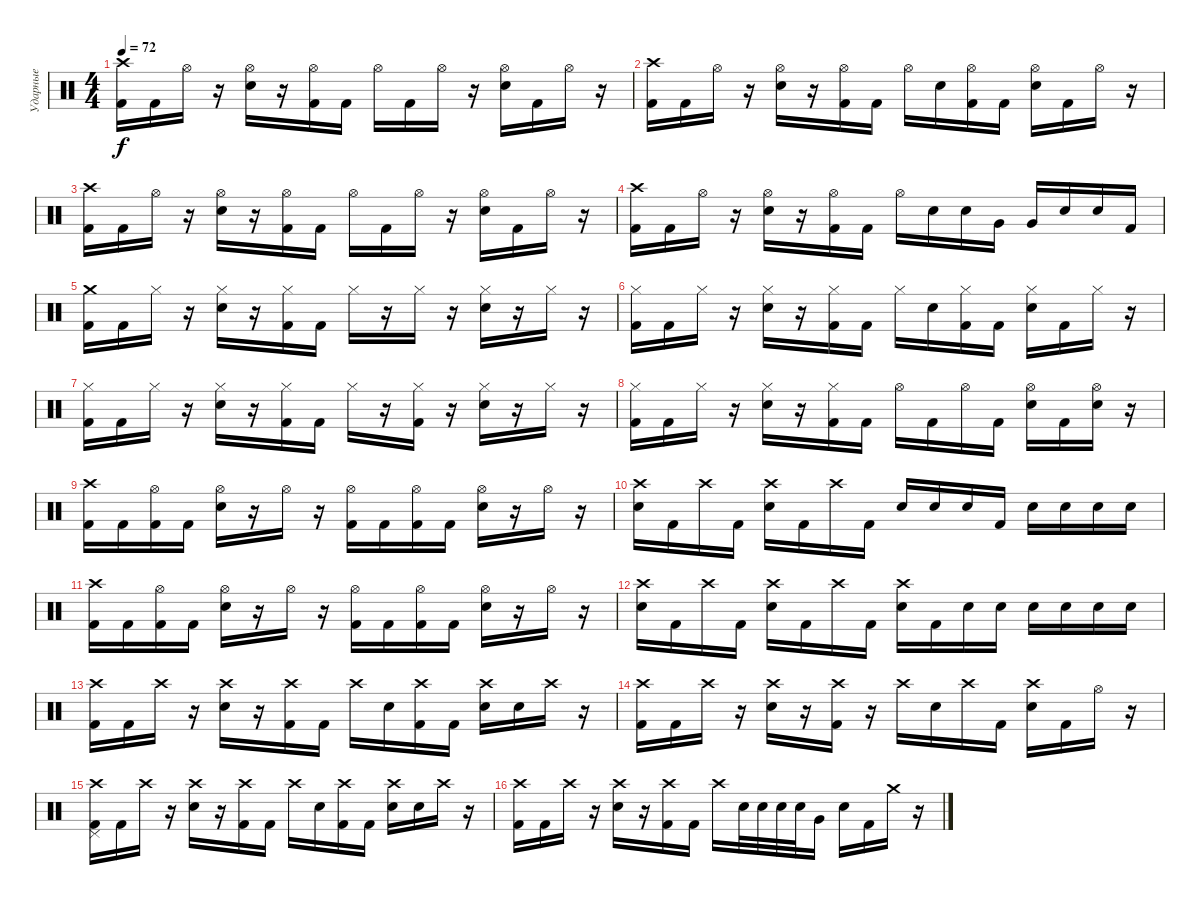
\track ("Ударные" "Ударные") {instrument percussion}
\staff {score}
\articulation defaults
\ts (4 4)
\tempo 72
\clef neutral
\ks c
("Crash high (hit)" "Kick (hit) 2").16{dy f} "Kick (hit) 2".16 "Hi-Hat (open)".16 r.16 ("Hi-Hat (open)" "Electric Snare (hit)").16 r.16 ("Hi-Hat (open)" "Kick (hit) 2").16 "Kick (hit) 2".16 "Hi-Hat (open)".16 "Kick (hit) 2".16 "Hi-Hat (open)".16 r.16 ("Hi-Hat (open)" "Electric Snare (hit)").16 "Kick (hit) 2".16 "Hi-Hat (open)".16 r.16 |
("Crash high (hit)" "Kick (hit) 2").16 "Kick (hit) 2".16 "Hi-Hat (open)".16 r.16 ("Hi-Hat (open)" "Electric Snare (hit)").16 r.16 ("Hi-Hat (open)" "Kick (hit) 2").16 "Kick (hit) 2".16 "Hi-Hat (open)".16 "Electric Snare (hit)".16 ("Hi-Hat (open)" "Kick (hit) 2").16 "Kick (hit) 2".16 ("Hi-Hat (open)" "Electric Snare (hit)").16 "Kick (hit) 2".16 "Hi-Hat (open)".16 r.16 |
("Crash high (hit)" "Kick (hit) 2").16 "Kick (hit) 2".16 "Hi-Hat (open)".16 r.16 ("Hi-Hat (open)" "Electric Snare (hit)").16 r.16 ("Hi-Hat (open)" "Kick (hit) 2").16 "Kick (hit) 2".16 "Hi-Hat (open)".16 "Kick (hit) 2".16 "Hi-Hat (open)".16 r.16 ("Hi-Hat (open)" "Electric Snare (hit)").16 "Kick (hit) 2".16 "Hi-Hat (open)".16 r.16 |
("Crash high (hit)" "Kick (hit) 2").16 "Kick (hit) 2".16 "Hi-Hat (open)".16 r.16 ("Hi-Hat (open)" "Electric Snare (hit)").16 r.16 ("Hi-Hat (open)" "Kick (hit) 2").16 "Kick (hit) 2".16 "Hi-Hat (open)".16 "Electric Snare (hit)".16 "Electric Snare (hit)".16 "Very Low Tom (hit)".16 "Very Low Tom (hit)".16 "Electric Snare (hit)".16 "Electric Snare (hit)".16 "Kick (hit) 2".16 |
("Crash medium (hit)" "Kick (hit) 2").16 "Kick (hit) 2".16 "Hi-Hat (closed)".16 r.16 ("Hi-Hat (closed)" "Electric Snare (hit)").16 r.16 ("Hi-Hat (closed)" "Kick (hit) 2").16 "Kick (hit) 2".16 "Hi-Hat (closed)".16 r.16 "Hi-Hat (closed)".16 r.16 ("Hi-Hat (closed)" "Electric Snare (hit)").16 r.16 "Hi-Hat (closed)".16 r.16 |
("Hi-Hat (closed)" "Kick (hit) 2").16 "Kick (hit) 2".16 "Hi-Hat (closed)".16 r.16 ("Hi-Hat (closed)" "Electric Snare (hit)").16 r.16 ("Hi-Hat (closed)" "Kick (hit) 2").16 "Kick (hit) 2".16 "Hi-Hat (closed)".16 "Electric Snare (hit)".16 ("Hi-Hat (closed)" "Kick (hit) 2").16 "Kick (hit) 2".16 ("Hi-Hat (closed)" "Electric Snare (hit)").16 "Kick (hit) 2".16 "Hi-Hat (closed)".16 r.16 |
("Hi-Hat (closed)" "Kick (hit) 2").16 "Kick (hit) 2".16 "Hi-Hat (closed)".16 r.16 ("Hi-Hat (closed)" "Electric Snare (hit)").16 r.16 ("Hi-Hat (closed)" "Kick (hit) 2").16 "Kick (hit) 2".16 "Hi-Hat (closed)".16 r.16 ("Hi-Hat (closed)" "Kick (hit) 2").16 r.16 ("Hi-Hat (closed)" "Electric Snare (hit)").16 r.16 "Hi-Hat (closed)".16 r.16 |
("Hi-Hat (closed)" "Kick (hit) 2").16 "Kick (hit) 2".16 "Hi-Hat (closed)".16 r.16 ("Hi-Hat (closed)" "Electric Snare (hit)").16 r.16 ("Hi-Hat (closed)" "Kick (hit) 2").16 "Kick (hit) 2".16 "Hi-Hat (open)".16 "Kick (hit) 2".16 "Hi-Hat (open)".16 "Kick (hit) 2".16 ("Hi-Hat (open)" "Electric Snare (hit)").16 "Kick (hit) 2".16 ("Hi-Hat (open)" "Electric Snare (hit)").16 r.16 |
("Crash high (hit)" "Kick (hit) 2").16 "Kick (hit) 2".16 ("Hi-Hat (open)" "Kick (hit) 2").16 "Kick (hit) 2".16 ("Hi-Hat (open)" "Electric Snare (hit)").16 r.16 "Hi-Hat (open)".16 r.16 ("Hi-Hat (open)" "Kick (hit) 2").16 "Kick (hit) 2".16 ("Hi-Hat (open)" "Kick (hit) 2").16 "Kick (hit) 2".16 ("Hi-Hat (open)" "Electric Snare (hit)").16 r.16 "Hi-Hat (open)".16 r.16 |
("Crash high (hit)" "Electric Snare (hit)").16 "Kick (hit) 2".16 "Crash high (hit)".16 "Kick (hit) 2".16 ("Crash high (hit)" "Electric Snare (hit)").16 "Kick (hit) 2".16 "Crash high (hit)".16 "Kick (hit) 2".16 "Electric Snare (hit)".16 "Electric Snare (hit)".16 "Electric Snare (hit)".16 "Kick (hit) 2".16 "Electric Snare (hit)".16 "Electric Snare (hit)".16 "Electric Snare (hit)".16 "Electric Snare (hit)".16 |
("Crash high (hit)" "Kick (hit) 2").16 "Kick (hit) 2".16 ("Hi-Hat (open)" "Kick (hit) 2").16 "Kick (hit) 2".16 ("Hi-Hat (open)" "Electric Snare (hit)").16 r.16 "Hi-Hat (open)".16 r.16 ("Hi-Hat (open)" "Kick (hit) 2").16 "Kick (hit) 2".16 ("Hi-Hat (open)" "Kick (hit) 2").16 "Kick (hit) 2".16 ("Hi-Hat (open)" "Electric Snare (hit)").16 r.16 "Hi-Hat (open)".16 r.16 |
("Crash high (hit)" "Electric Snare (hit)").16 "Kick (hit) 2".16 "Crash high (hit)".16 "Kick (hit) 2".16 ("Crash high (hit)" "Electric Snare (hit)").16 "Kick (hit) 2".16 "Crash high (hit)".16 "Kick (hit) 2".16 ("Crash high (hit)" "Electric Snare (hit)").16 "Kick (hit) 2".16 "Electric Snare (hit)".16 "Electric Snare (hit)".16 "Electric Snare (hit)".16 "Electric Snare (hit)".16 "Electric Snare (hit)".16 "Electric Snare (hit)".16 |
("Crash high (hit)" "Kick (hit) 2").16 "Kick (hit) 2".16 "Crash high (hit)".16 r.16 ("Crash high (hit)" "Electric Snare (hit)").16 r.16 ("Crash high (hit)" "Kick (hit) 2").16 "Kick (hit) 2".16 "Crash high (hit)".16 "Electric Snare (hit)".16 ("Crash high (hit)" "Kick (hit) 2").16 "Kick (hit) 2".16 ("Crash high (hit)" "Electric Snare (hit)").16 "Electric Snare (hit)".16 "Crash high (hit)".16 r.16 |
("Crash high (hit)" "Kick (hit) 2").16 "Kick (hit) 2".16 "Crash high (hit)".16 r.16 ("Crash high (hit)" "Electric Snare (hit)").16 r.16 ("Crash high (hit)" "Kick (hit) 2").16 r.16 "Crash high (hit)".16 "Electric Snare (hit)".16 "Crash high (hit)".16 "Kick (hit) 2".16 ("Crash high (hit)" "Electric Snare (hit)").16 "Kick (hit) 2".16 "Hi-Hat (open)".16 r.16 |
("Crash high (hit)" "Pedal Hi-Hat (hit)" "Kick (hit) 2").16 "Kick (hit) 2".16 "Crash high (hit)".16 r.16 ("Crash high (hit)" "Electric Snare (hit)").16 r.16 ("Crash high (hit)" "Kick (hit) 2").16 "Kick (hit) 2".16 "Crash high (hit)".16 "Electric Snare (hit)".16 ("Crash high (hit)" "Kick (hit) 2").16 "Kick (hit) 2".16 ("Crash high (hit)" "Electric Snare (hit)").16 "Electric Snare (hit)".16 "Crash high (hit)".16 r.16 |
("Crash high (hit)" "Kick (hit) 2").16 "Kick (hit) 2".16 "Crash high (hit)".16 r.16 ("Crash high (hit)" "Electric Snare (hit)").16 r.16 ("Crash high (hit)" "Kick (hit) 2").16 "Kick (hit) 2".16 "Crash high (hit)".16 "Electric Snare (hit)".32 "Electric Snare (hit)".32 "Electric Snare (hit)".32 "Electric Snare (hit)".32 "Very Low Tom (hit)".16 "Electric Snare (hit)".16 "Kick (hit) 2".16 "Crash medium (hit)".16 r.16
